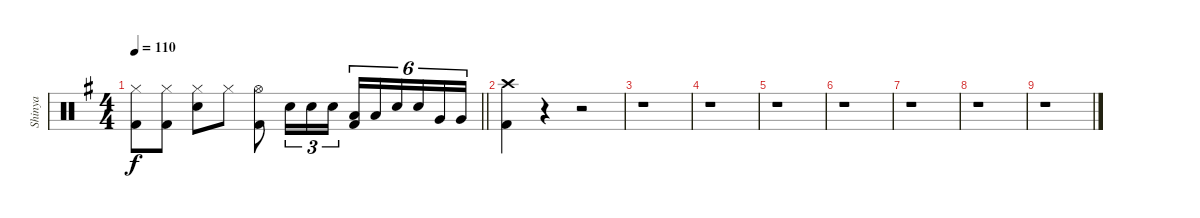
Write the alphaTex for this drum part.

\track ("Shinya" "Shinya") {instrument percussion}
\staff {score}
\articulation defaults
\ts (4 4)
\tempo 110
\clef neutral
\barLineRight lightlight
\ks g
("Hi-Hat (closed)" "Kick (hit) 2").8{dy f} ("Hi-Hat (closed)" "Kick (hit) 2").8 ("Hi-Hat (closed)" "Electric Snare (hit)").8 "Hi-Hat (closed)".8 ("Hi-Hat (open)" "Kick (hit) 2").8 "Electric Snare (hit)".16{tu (3 2)} "Electric Snare (hit)".16{tu (3 2)} "Electric Snare (hit)".16{tu (3 2)} ("Low Floor Tom (hit)" "Kick (hit) 2").16{tu (6 4)} "Low Floor Tom (hit)".16{tu (6 4)} "Electric Snare (hit)".16{tu (6 4)} "Electric Snare (hit)".16{tu (6 4)} "Very Low Tom (hit)".16{tu (6 4)} "Very Low Tom (hit)".16{tu (6 4)} |
("Crash high (hit)" "Kick (hit) 2").4 r.4 r.2 |
r.1 |
r.1 |
r.1 |
r.1 |
r.1 |
r.1 |
r.1
